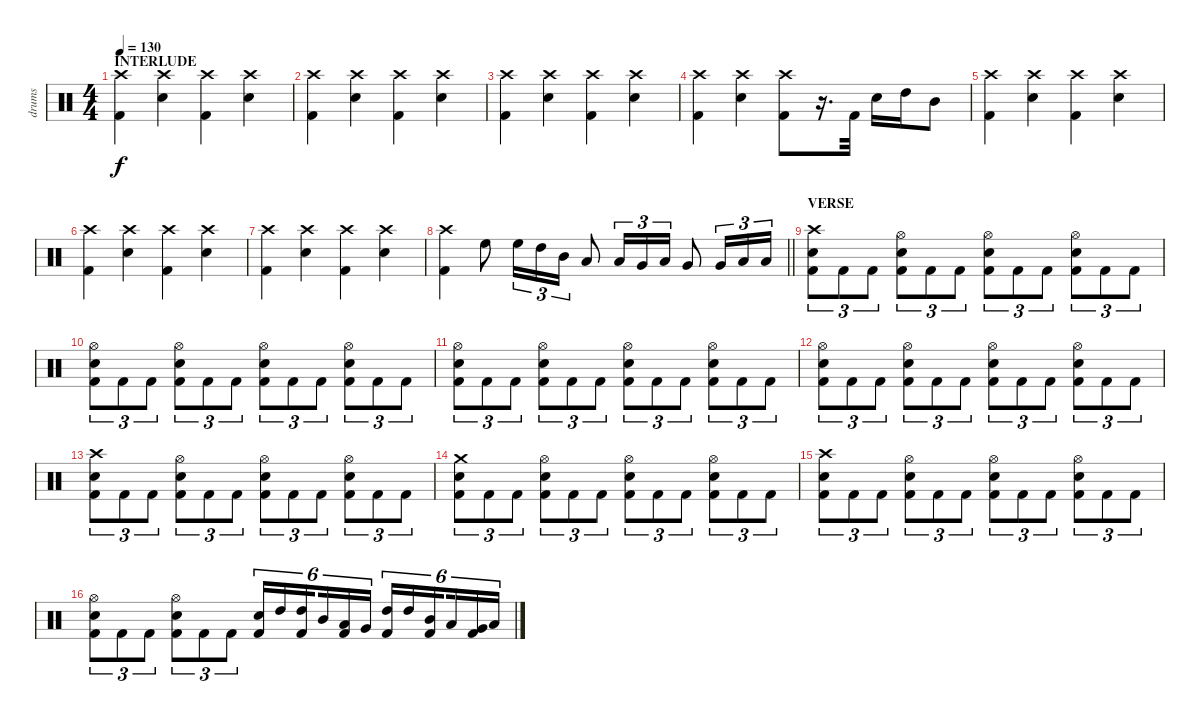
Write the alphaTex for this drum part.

\track ("drums" "drums") {instrument percussion}
\staff {score}
\articulation defaults
\ts (4 4)
\section ("" "INTERLUDE")
\tempo 130
\clef neutral
\ks c
("Crash high (hit)" "Kick (hit) 2").4{dy f} ("Crash high (hit)" "Electric Snare (hit)").4 ("Crash high (hit)" "Kick (hit) 2").4 ("Crash high (hit)" "Electric Snare (hit)").4 |
("Crash high (hit)" "Kick (hit) 2").4 ("Crash high (hit)" "Electric Snare (hit)").4 ("Crash high (hit)" "Kick (hit) 2").4 ("Crash high (hit)" "Electric Snare (hit)").4 |
("Crash high (hit)" "Kick (hit) 2").4 ("Crash high (hit)" "Electric Snare (hit)").4 ("Crash high (hit)" "Kick (hit) 2").4 ("Crash high (hit)" "Electric Snare (hit)").4 |
("Crash high (hit)" "Kick (hit) 2").4 ("Crash high (hit)" "Electric Snare (hit)").4 ("Crash high (hit)" "Kick (hit) 2").8 r.16{d} "Kick (hit) 2".32 "Electric Snare (hit)".16 "High Tom (hit)".16 "Mid Tom (hit)".8 |
("Crash high (hit)" "Kick (hit) 2").4 ("Crash high (hit)" "Electric Snare (hit)").4 ("Crash high (hit)" "Kick (hit) 2").4 ("Crash high (hit)" "Electric Snare (hit)").4 |
("Crash high (hit)" "Kick (hit) 2").4 ("Crash high (hit)" "Electric Snare (hit)").4 ("Crash high (hit)" "Kick (hit) 2").4 ("Crash high (hit)" "Electric Snare (hit)").4 |
("Crash high (hit)" "Kick (hit) 2").4 ("Crash high (hit)" "Electric Snare (hit)").4 ("Crash high (hit)" "Kick (hit) 2").4 ("Crash high (hit)" "Electric Snare (hit)").4 |
\barLineRight lightlight
("Crash high (hit)" "Kick (hit) 2").4 "High Floor Tom (hit)".8 "High Floor Tom (hit)".16{tu (3 2)} "High Tom (hit)".16{tu (3 2)} "Mid Tom (hit)".16{tu (3 2)} "Low Tom (hit)".8 "Low Tom (hit)".16{tu (3 2)} "Very Low Tom (hit)".16{tu (3 2)} "Low Floor Tom (hit)".16{tu (3 2)} "Very Low Tom (hit)".8 "Very Low Tom (hit)".16{tu (3 2)} "Low Floor Tom (hit)".16{tu (3 2)} "Low Floor Tom (hit)".16{tu (3 2)} |
\section ("" "VERSE")
("Crash high (hit)" "Electric Snare (hit)" "Kick (hit) 2").8{tu (3 2)} "Kick (hit) 2".8{tu (3 2)} "Kick (hit) 2".8{tu (3 2)} ("Hi-Hat (open)" "Electric Snare (hit)" "Kick (hit) 2").8{tu (3 2)} "Kick (hit) 2".8{tu (3 2)} "Kick (hit) 2".8{tu (3 2)} ("Hi-Hat (open)" "Electric Snare (hit)" "Kick (hit) 2").8{tu (3 2)} "Kick (hit) 2".8{tu (3 2)} "Kick (hit) 2".8{tu (3 2)} ("Hi-Hat (open)" "Electric Snare (hit)" "Kick (hit) 2").8{tu (3 2)} "Kick (hit) 2".8{tu (3 2)} "Kick (hit) 2".8{tu (3 2)} |
("Hi-Hat (open)" "Electric Snare (hit)" "Kick (hit) 2").8{tu (3 2)} "Kick (hit) 2".8{tu (3 2)} "Kick (hit) 2".8{tu (3 2)} ("Hi-Hat (open)" "Electric Snare (hit)" "Kick (hit) 2").8{tu (3 2)} "Kick (hit) 2".8{tu (3 2)} "Kick (hit) 2".8{tu (3 2)} ("Hi-Hat (open)" "Electric Snare (hit)" "Kick (hit) 2").8{tu (3 2)} "Kick (hit) 2".8{tu (3 2)} "Kick (hit) 2".8{tu (3 2)} ("Hi-Hat (open)" "Electric Snare (hit)" "Kick (hit) 2").8{tu (3 2)} "Kick (hit) 2".8{tu (3 2)} "Kick (hit) 2".8{tu (3 2)} |
("Hi-Hat (open)" "Electric Snare (hit)" "Kick (hit) 2").8{tu (3 2)} "Kick (hit) 2".8{tu (3 2)} "Kick (hit) 2".8{tu (3 2)} ("Hi-Hat (open)" "Electric Snare (hit)" "Kick (hit) 2").8{tu (3 2)} "Kick (hit) 2".8{tu (3 2)} "Kick (hit) 2".8{tu (3 2)} ("Hi-Hat (open)" "Electric Snare (hit)" "Kick (hit) 2").8{tu (3 2)} "Kick (hit) 2".8{tu (3 2)} "Kick (hit) 2".8{tu (3 2)} ("Hi-Hat (open)" "Electric Snare (hit)" "Kick (hit) 2").8{tu (3 2)} "Kick (hit) 2".8{tu (3 2)} "Kick (hit) 2".8{tu (3 2)} |
("Hi-Hat (open)" "Electric Snare (hit)" "Kick (hit) 2").8{tu (3 2)} "Kick (hit) 2".8{tu (3 2)} "Kick (hit) 2".8{tu (3 2)} ("Hi-Hat (open)" "Electric Snare (hit)" "Kick (hit) 2").8{tu (3 2)} "Kick (hit) 2".8{tu (3 2)} "Kick (hit) 2".8{tu (3 2)} ("Hi-Hat (open)" "Electric Snare (hit)" "Kick (hit) 2").8{tu (3 2)} "Kick (hit) 2".8{tu (3 2)} "Kick (hit) 2".8{tu (3 2)} ("Hi-Hat (open)" "Electric Snare (hit)" "Kick (hit) 2").8{tu (3 2)} "Kick (hit) 2".8{tu (3 2)} "Kick (hit) 2".8{tu (3 2)} |
("Crash high (hit)" "Electric Snare (hit)" "Kick (hit) 2").8{tu (3 2)} "Kick (hit) 2".8{tu (3 2)} "Kick (hit) 2".8{tu (3 2)} ("Hi-Hat (open)" "Electric Snare (hit)" "Kick (hit) 2").8{tu (3 2)} "Kick (hit) 2".8{tu (3 2)} "Kick (hit) 2".8{tu (3 2)} ("Hi-Hat (open)" "Electric Snare (hit)" "Kick (hit) 2").8{tu (3 2)} "Kick (hit) 2".8{tu (3 2)} "Kick (hit) 2".8{tu (3 2)} ("Hi-Hat (open)" "Electric Snare (hit)" "Kick (hit) 2").8{tu (3 2)} "Kick (hit) 2".8{tu (3 2)} "Kick (hit) 2".8{tu (3 2)} |
("Crash medium (hit)" "Electric Snare (hit)" "Kick (hit) 2").8{tu (3 2)} "Kick (hit) 2".8{tu (3 2)} "Kick (hit) 2".8{tu (3 2)} ("Hi-Hat (open)" "Electric Snare (hit)" "Kick (hit) 2").8{tu (3 2)} "Kick (hit) 2".8{tu (3 2)} "Kick (hit) 2".8{tu (3 2)} ("Hi-Hat (open)" "Electric Snare (hit)" "Kick (hit) 2").8{tu (3 2)} "Kick (hit) 2".8{tu (3 2)} "Kick (hit) 2".8{tu (3 2)} ("Hi-Hat (open)" "Electric Snare (hit)" "Kick (hit) 2").8{tu (3 2)} "Kick (hit) 2".8{tu (3 2)} "Kick (hit) 2".8{tu (3 2)} |
("Crash high (hit)" "Electric Snare (hit)" "Kick (hit) 2").8{tu (3 2)} "Kick (hit) 2".8{tu (3 2)} "Kick (hit) 2".8{tu (3 2)} ("Hi-Hat (open)" "Electric Snare (hit)" "Kick (hit) 2").8{tu (3 2)} "Kick (hit) 2".8{tu (3 2)} "Kick (hit) 2".8{tu (3 2)} ("Hi-Hat (open)" "Electric Snare (hit)" "Kick (hit) 2").8{tu (3 2)} "Kick (hit) 2".8{tu (3 2)} "Kick (hit) 2".8{tu (3 2)} ("Hi-Hat (open)" "Electric Snare (hit)" "Kick (hit) 2").8{tu (3 2)} "Kick (hit) 2".8{tu (3 2)} "Kick (hit) 2".8{tu (3 2)} |
("Hi-Hat (open)" "Electric Snare (hit)" "Kick (hit) 2").8{tu (3 2)} "Kick (hit) 2".8{tu (3 2)} "Kick (hit) 2".8{tu (3 2)} ("Hi-Hat (open)" "Electric Snare (hit)" "Kick (hit) 2").8{tu (3 2)} "Kick (hit) 2".8{tu (3 2)} "Kick (hit) 2".8{tu (3 2)} ("Electric Snare (hit)" "Kick (hit) 2").16{tu (6 4)} "High Tom (hit)".16{tu (6 4)} ("High Tom (hit)" "Kick (hit) 2").16{tu (6 4) beam splitsecondary} "Mid Tom (hit)".16{tu (6 4)} ("Low Tom (hit)" "Kick (hit) 2").16{tu (6 4)} "Very Low Tom (hit)".16{tu (6 4)} ("High Tom (hit)" "Kick (hit) 2").16{tu (6 4)} "High Tom (hit)".16{tu (6 4)} ("Mid Tom (hit)" "Kick (hit) 2").16{tu (6 4) beam splitsecondary} "Low Tom (hit)".16{tu (6 4)} ("Very Low Tom (hit)" "Kick (hit) 2").16{tu (6 4)} "Low Floor Tom (hit)".16{tu (6 4)}
